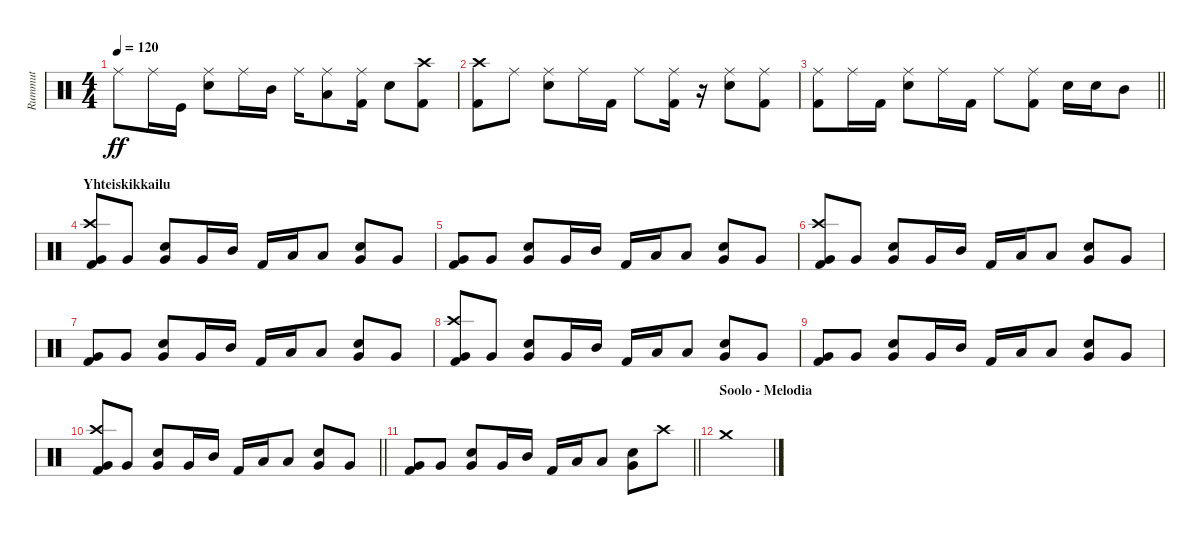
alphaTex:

\track ("Rummut" "Rummut") {instrument percussion}
\staff {score}
\articulation defaults
\ts (4 4)
\tempo 120
\clef neutral
\ks c "Ride (middle)".8{dy ff} "Ride (middle)".16 "Kick (hit)".16
("Ride (middle)" "Snare (hit) 2").8 "Ride (middle)".16 "Mid Tom (hit)".16 "Ride (middle)".16 ("Ride (middle)" "Low Tom (hit)").8 ("Ride (middle)" "Kick (hit) 2").16 "Snare (hit) 2".8 ("Crash high (hit)" "Kick (hit) 2").8 |
("Crash high (hit)" "Kick (hit) 2").8 "Ride (middle)".8 ("Ride (middle)" "Snare (hit) 2").8 "Ride (middle)".16 "Kick (hit) 2".16 "Ride (middle)".8 ("Ride (middle)" "Kick (hit) 2").16 r.16 ("Ride (middle)" "Snare (hit) 2").8 ("Ride (middle)" "Kick (hit) 2").8 |
\barLineRight lightlight
("Ride (middle)" "Kick (hit) 2").8 "Ride (middle)".16 "Kick (hit) 2".16 ("Ride (middle)" "Snare (hit) 2").8 "Ride (middle)".16 "Kick (hit) 2".16 "Ride (middle)".8 ("Ride (middle)" "Kick (hit) 2").8 "Snare (hit) 2".16 "Snare (hit) 2".16 "Mid Tom (hit)".8 |
\section ("" "Yhteiskikkailu")
("Crash high (hit)" "Very Low Tom (hit)" "Kick (hit) 2").8 "Very Low Tom (hit)".8 ("Very Low Tom (hit)" "Snare (hit) 2").8 "Very Low Tom (hit)".16 "Mid Tom (hit)".16 "Kick (hit) 2".16 "Low Tom (hit)".16 "Low Tom (hit)".8 ("Very Low Tom (hit)" "Snare (hit) 2").8 "Very Low Tom (hit)".8 |
("Very Low Tom (hit)" "Kick (hit) 2").8 "Very Low Tom (hit)".8 ("Very Low Tom (hit)" "Snare (hit) 2").8 "Very Low Tom (hit)".16 "Mid Tom (hit)".16 "Kick (hit) 2".16 "Low Tom (hit)".16 "Low Tom (hit)".8 ("Very Low Tom (hit)" "Snare (hit) 2").8 "Very Low Tom (hit)".8 |
("Crash high (hit)" "Very Low Tom (hit)" "Kick (hit) 2").8 "Very Low Tom (hit)".8 ("Very Low Tom (hit)" "Snare (hit) 2").8 "Very Low Tom (hit)".16 "Mid Tom (hit)".16 "Kick (hit) 2".16 "Low Tom (hit)".16 "Low Tom (hit)".8 ("Very Low Tom (hit)" "Snare (hit) 2").8 "Very Low Tom (hit)".8 |
("Very Low Tom (hit)" "Kick (hit) 2").8 "Very Low Tom (hit)".8 ("Very Low Tom (hit)" "Snare (hit) 2").8 "Very Low Tom (hit)".16 "Mid Tom (hit)".16 "Kick (hit) 2".16 "Low Tom (hit)".16 "Low Tom (hit)".8 ("Very Low Tom (hit)" "Snare (hit) 2").8 "Very Low Tom (hit)".8 |
("Crash high (hit)" "Very Low Tom (hit)" "Kick (hit) 2").8 "Very Low Tom (hit)".8 ("Very Low Tom (hit)" "Snare (hit) 2").8 "Very Low Tom (hit)".16 "Mid Tom (hit)".16 "Kick (hit) 2".16 "Low Tom (hit)".16 "Low Tom (hit)".8 ("Very Low Tom (hit)" "Snare (hit) 2").8 "Very Low Tom (hit)".8 |
("Very Low Tom (hit)" "Kick (hit) 2").8 "Very Low Tom (hit)".8 ("Very Low Tom (hit)" "Snare (hit) 2").8 "Very Low Tom (hit)".16 "Mid Tom (hit)".16 "Kick (hit) 2".16 "Low Tom (hit)".16 "Low Tom (hit)".8 ("Very Low Tom (hit)" "Snare (hit) 2").8 "Very Low Tom (hit)".8 |
\barLineRight lightlight
("Crash high (hit)" "Very Low Tom (hit)" "Kick (hit) 2").8 "Very Low Tom (hit)".8 ("Very Low Tom (hit)" "Snare (hit) 2").8 "Very Low Tom (hit)".16 "Mid Tom (hit)".16 "Kick (hit) 2".16 "Low Tom (hit)".16 "Low Tom (hit)".8 ("Very Low Tom (hit)" "Snare (hit) 2").8 "Very Low Tom (hit)".8 |
\barLineRight lightlight
("Very Low Tom (hit)" "Kick (hit) 2").8 "Very Low Tom (hit)".8 ("Very Low Tom (hit)" "Snare (hit) 2").8 "Very Low Tom (hit)".16 "Mid Tom (hit)".16 "Kick (hit) 2".16 "Low Tom (hit)".16 "Low Tom (hit)".8 ("Very Low Tom (hit)" "Snare (hit) 2").8 "Crash high (hit)".8 |
\section ("" "Soolo - Melodia")
"Crash medium (hit)".1
